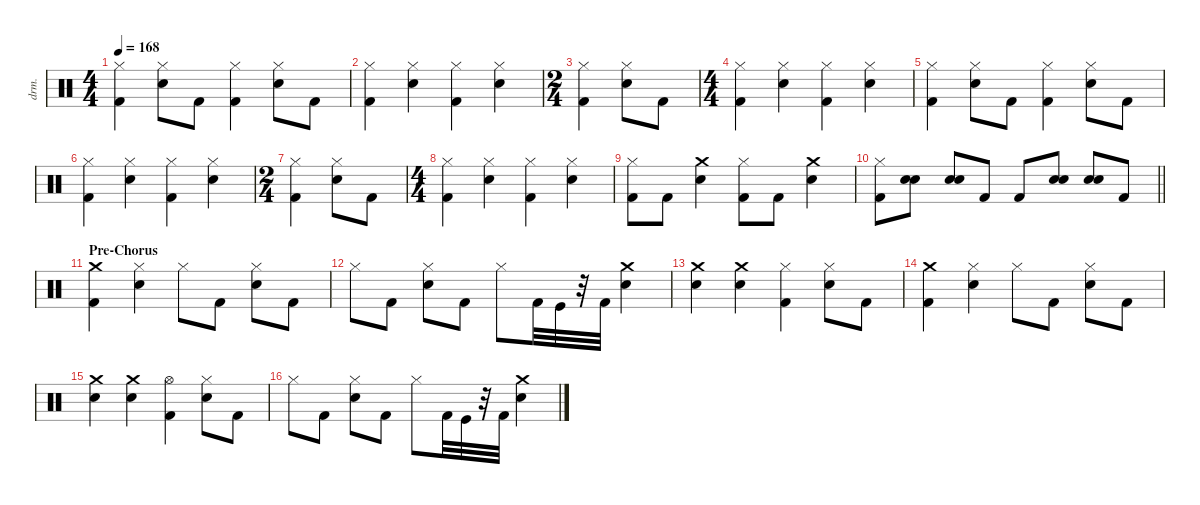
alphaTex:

\defaultSystemsLayout 4
\hideDynamics
\bracketExtendMode nobrackets
\otherSystemsTrackNameOrientation horizontal
\track ("Drums" "drm.") {instrument percussion}
\staff {score}
\articulation defaults
\ts (4 4)
\tempo 168
\clef neutral
\ks c
("Hi-Hat (closed)" "Kick (hit) 2").4{dy fff} ("Snare (hit) 2" "Hi-Hat (closed)").8 "Kick (hit) 2".8 ("Kick (hit) 2" "Hi-Hat (closed)").4 ("Hi-Hat (closed)" "Snare (hit) 2").8 "Kick (hit) 2".8 |
("Hi-Hat (closed)" "Kick (hit) 2").4 ("Hi-Hat (closed)" "Snare (hit) 2").4 ("Hi-Hat (closed)" "Kick (hit) 2").4 ("Snare (hit) 2" "Hi-Hat (closed)").4 |
\ts (2 4)
\beaming (8 2 2)
("Hi-Hat (closed)" "Kick (hit) 2").4 ("Snare (hit) 2" "Hi-Hat (closed)").8 "Kick (hit) 2".8 |
\ts (4 4)
\beaming (8 2 2 2 2)
("Kick (hit) 2" "Hi-Hat (closed)").4 ("Snare (hit) 2" "Hi-Hat (closed)").4 ("Kick (hit) 2" "Hi-Hat (closed)").4 ("Snare (hit) 2" "Hi-Hat (closed)").4 |
("Hi-Hat (closed)" "Kick (hit) 2").4 ("Snare (hit) 2" "Hi-Hat (closed)").8 "Kick (hit) 2".8 ("Kick (hit) 2" "Hi-Hat (closed)").4 ("Hi-Hat (closed)" "Snare (hit) 2").8 "Kick (hit) 2".8 |
("Hi-Hat (closed)" "Kick (hit) 2").4 ("Hi-Hat (closed)" "Snare (hit) 2").4 ("Hi-Hat (closed)" "Kick (hit) 2").4 ("Snare (hit) 2" "Hi-Hat (closed)").4 |
\ts (2 4)
\beaming (8 2 2)
("Hi-Hat (closed)" "Kick (hit) 2").4 ("Snare (hit) 2" "Hi-Hat (closed)").8 "Kick (hit) 2".8 |
\ts (4 4)
\beaming (8 2 2 2 2)
("Kick (hit) 2" "Hi-Hat (closed)").4 ("Snare (hit) 2" "Hi-Hat (closed)").4 ("Kick (hit) 2" "Hi-Hat (closed)").4 ("Snare (hit) 2" "Hi-Hat (closed)").4 |
("Kick (hit) 2" "Hi-Hat (closed)").8 "Kick (hit) 2".8 ("Crash medium (hit)" "Snare (hit) 2").4 ("Kick (hit) 2" "Hi-Hat (closed)").8 "Kick (hit) 2".8 ("Crash medium (hit)" "Snare (hit) 2").4 |
\barLineRight lightlight
("Kick (hit) 2" "Hi-Hat (closed)").8 ("Snare (hit) 2" "Snare (hit) 2").8{dy f} ("Snare (hit) 2" "Snare (hit) 2").8 "Kick (hit) 2".8{dy fff} "Kick (hit) 2".8 ("Snare (hit) 2" "Snare (hit) 2").8{dy f} ("Snare (hit) 2" "Snare (hit) 2").8 "Kick (hit) 2".8{dy fff} |
\section ("" "Pre-Chorus")
("Kick (hit) 2" "Crash medium (hit)").4 ("Hi-Hat (closed)" "Snare (hit) 2").4 "Hi-Hat (closed)".8 "Kick (hit) 2".8 ("Snare (hit) 2" "Hi-Hat (closed)").8 "Kick (hit) 2".8 |
"Hi-Hat (closed)".8 "Kick (hit) 2".8 ("Snare (hit) 2" "Hi-Hat (closed)").8 "Kick (hit) 2".8 "Hi-Hat (closed)".8 "Kick (hit) 2".32 "Kick (hit)".32 r.32 "Kick (hit) 2".32 ("Crash medium (hit)" "Snare (hit) 2").4 |
("Crash medium (hit)" "Snare (hit) 2").4 ("Crash medium (hit)" "Snare (hit) 2").4 ("Hi-Hat (closed)" "Kick (hit) 2").4 ("Snare (hit) 2" "Hi-Hat (closed)").8 "Kick (hit) 2".8 |
("Kick (hit) 2" "Crash medium (hit)").4 ("Hi-Hat (closed)" "Snare (hit) 2").4 "Hi-Hat (closed)".8 "Kick (hit) 2".8 ("Snare (hit) 2" "Hi-Hat (closed)").8 "Kick (hit) 2".8 |
("Crash medium (hit)" "Snare (hit) 2").4 ("Crash medium (hit)" "Snare (hit) 2").4 ("Hi-Hat (open)" "Kick (hit) 2").4 ("Snare (hit) 2" "Hi-Hat (closed)").8 "Kick (hit) 2".8 |
"Hi-Hat (closed)".8 "Kick (hit) 2".8 ("Snare (hit) 2" "Hi-Hat (closed)").8 "Kick (hit) 2".8 "Hi-Hat (closed)".8 "Kick (hit) 2".32 "Kick (hit)".32 r.32 "Kick (hit) 2".32 ("Crash medium (hit)" "Snare (hit) 2").4
